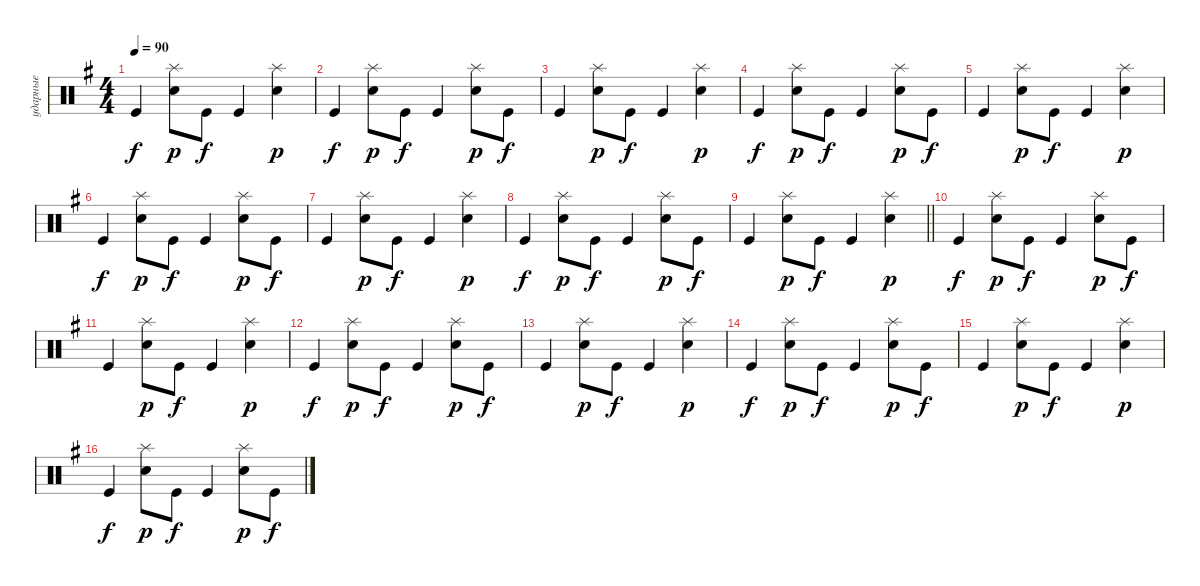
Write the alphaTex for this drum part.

\track ("ударные" "ударные") {instrument percussion}
\staff {score}
\articulation defaults
\ts (4 4)
\section ("" "")
\tempo 90
\clef neutral
\ks eminor "Kick (hit)".4{dy f}
("Splash (hit)" "Snare (hit) 2").8{dy p} "Kick (hit)".8{dy f} "Kick (hit)".4 ("Splash (hit)" "Snare (hit) 2").4{dy p} |
"Kick (hit)".4{dy f} ("Splash (hit)" "Snare (hit) 2").8{dy p} "Kick (hit)".8{dy f} "Kick (hit)".4 ("Splash (hit)" "Snare (hit) 2").8{dy p} "Kick (hit)".8{dy f} |
"Kick (hit)".4 ("Splash (hit)" "Snare (hit) 2").8{dy p} "Kick (hit)".8{dy f} "Kick (hit)".4 ("Splash (hit)" "Snare (hit) 2").4{dy p} |
"Kick (hit)".4{dy f} ("Splash (hit)" "Snare (hit) 2").8{dy p} "Kick (hit)".8{dy f} "Kick (hit)".4 ("Splash (hit)" "Snare (hit) 2").8{dy p} "Kick (hit)".8{dy f} |
"Kick (hit)".4 ("Splash (hit)" "Snare (hit) 2").8{dy p} "Kick (hit)".8{dy f} "Kick (hit)".4 ("Splash (hit)" "Snare (hit) 2").4{dy p} |
"Kick (hit)".4{dy f} ("Splash (hit)" "Snare (hit) 2").8{dy p} "Kick (hit)".8{dy f} "Kick (hit)".4 ("Splash (hit)" "Snare (hit) 2").8{dy p} "Kick (hit)".8{dy f} |
"Kick (hit)".4 ("Splash (hit)" "Snare (hit) 2").8{dy p} "Kick (hit)".8{dy f} "Kick (hit)".4 ("Splash (hit)" "Snare (hit) 2").4{dy p} |
"Kick (hit)".4{dy f} ("Splash (hit)" "Snare (hit) 2").8{dy p} "Kick (hit)".8{dy f} "Kick (hit)".4 ("Splash (hit)" "Snare (hit) 2").8{dy p} "Kick (hit)".8{dy f} |
\barLineRight lightlight "Kick (hit)".4
("Splash (hit)" "Snare (hit) 2").8{dy p} "Kick (hit)".8{dy f} "Kick (hit)".4 ("Splash (hit)" "Snare (hit) 2").4{dy p} |
\section ("" "")
"Kick (hit)".4{dy f} ("Splash (hit)" "Snare (hit) 2").8{dy p} "Kick (hit)".8{dy f} "Kick (hit)".4 ("Splash (hit)" "Snare (hit) 2").8{dy p} "Kick (hit)".8{dy f} |
"Kick (hit)".4 ("Splash (hit)" "Snare (hit) 2").8{dy p} "Kick (hit)".8{dy f} "Kick (hit)".4 ("Splash (hit)" "Snare (hit) 2").4{dy p} |
"Kick (hit)".4{dy f} ("Splash (hit)" "Snare (hit) 2").8{dy p} "Kick (hit)".8{dy f} "Kick (hit)".4 ("Splash (hit)" "Snare (hit) 2").8{dy p} "Kick (hit)".8{dy f} |
"Kick (hit)".4 ("Splash (hit)" "Snare (hit) 2").8{dy p} "Kick (hit)".8{dy f} "Kick (hit)".4 ("Splash (hit)" "Snare (hit) 2").4{dy p} |
"Kick (hit)".4{dy f} ("Splash (hit)" "Snare (hit) 2").8{dy p} "Kick (hit)".8{dy f} "Kick (hit)".4 ("Splash (hit)" "Snare (hit) 2").8{dy p} "Kick (hit)".8{dy f} |
"Kick (hit)".4 ("Splash (hit)" "Snare (hit) 2").8{dy p} "Kick (hit)".8{dy f} "Kick (hit)".4 ("Splash (hit)" "Snare (hit) 2").4{dy p} |
"Kick (hit)".4{dy f} ("Splash (hit)" "Snare (hit) 2").8{dy p} "Kick (hit)".8{dy f} "Kick (hit)".4 ("Splash (hit)" "Snare (hit) 2").8{dy p} "Kick (hit)".8{dy f}
